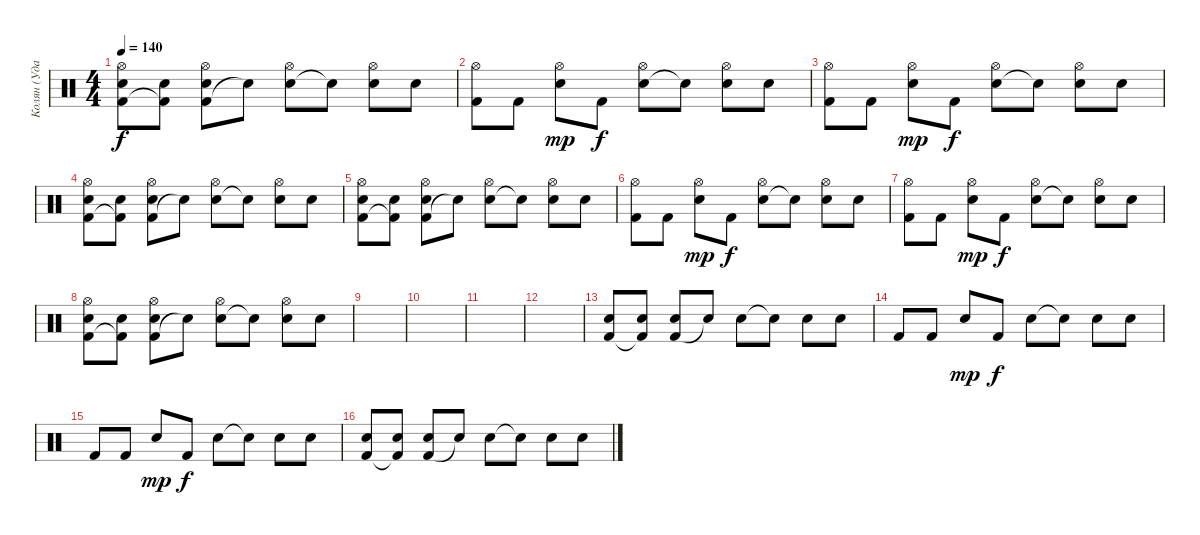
\track ("Колян (Ударные)" "Колян (Уда") {instrument percussion}
\staff
\articulation defaults
\ts (4 4)
\tempo 140
\clef neutral
\ks c
("Kick (hit) 2" "Snare (hit) 2" "Hi-Hat (open)").8{dy f} ("Kick (hit) 2"{t} "Snare (hit) 2").8 ("Kick (hit) 2" "Snare (hit) 2" "Hi-Hat (open)").8 "Snare (hit)"{t}.8 ("Snare (hit) 2" "Hi-Hat (open)").8 "Snare (hit)"{t}.8 ("Snare (hit) 2" "Hi-Hat (open)").8 "Snare (hit) 2".8 |
("Kick (hit) 2" "Hi-Hat (open)").8 "Kick (hit) 2".8 ("Snare (hit) 2" "Hi-Hat (open)").8{dy mp} "Kick (hit) 2".8{dy f} ("Snare (hit) 2" "Hi-Hat (open)").8 "Snare (hit)"{t}.8 ("Snare (hit) 2" "Hi-Hat (open)").8 "Snare (hit) 2".8 |
("Kick (hit) 2" "Hi-Hat (open)").8 "Kick (hit) 2".8 ("Snare (hit) 2" "Hi-Hat (open)").8{dy mp} "Kick (hit) 2".8{dy f} ("Snare (hit) 2" "Hi-Hat (open)").8 "Snare (hit)"{t}.8 ("Snare (hit) 2" "Hi-Hat (open)").8 "Snare (hit) 2".8 |
("Kick (hit) 2" "Snare (hit) 2" "Hi-Hat (open)").8 ("Kick (hit) 2"{t} "Snare (hit) 2").8 ("Kick (hit) 2" "Snare (hit) 2" "Hi-Hat (open)").8 "Snare (hit)"{t}.8 ("Snare (hit) 2" "Hi-Hat (open)").8 "Snare (hit)"{t}.8 ("Snare (hit) 2" "Hi-Hat (open)").8 "Snare (hit) 2".8 |
("Kick (hit) 2" "Snare (hit) 2" "Hi-Hat (open)").8 ("Kick (hit) 2"{t} "Snare (hit) 2").8 ("Kick (hit) 2" "Snare (hit) 2" "Hi-Hat (open)").8 "Snare (hit)"{t}.8 ("Snare (hit) 2" "Hi-Hat (open)").8 "Snare (hit)"{t}.8 ("Snare (hit) 2" "Hi-Hat (open)").8 "Snare (hit) 2".8 |
("Kick (hit) 2" "Hi-Hat (open)").8 "Kick (hit) 2".8 ("Snare (hit) 2" "Hi-Hat (open)").8{dy mp} "Kick (hit) 2".8{dy f} ("Snare (hit) 2" "Hi-Hat (open)").8 "Snare (hit)"{t}.8 ("Snare (hit) 2" "Hi-Hat (open)").8 "Snare (hit) 2".8 |
("Kick (hit) 2" "Hi-Hat (open)").8 "Kick (hit) 2".8 ("Snare (hit) 2" "Hi-Hat (open)").8{dy mp} "Kick (hit) 2".8{dy f} ("Snare (hit) 2" "Hi-Hat (open)").8 "Snare (hit)"{t}.8 ("Snare (hit) 2" "Hi-Hat (open)").8 "Snare (hit) 2".8 |
("Kick (hit) 2" "Snare (hit) 2" "Hi-Hat (open)").8 ("Kick (hit) 2"{t} "Snare (hit) 2").8 ("Kick (hit) 2" "Snare (hit) 2" "Hi-Hat (open)").8 "Snare (hit)"{t}.8 ("Snare (hit) 2" "Hi-Hat (open)").8 "Snare (hit)"{t}.8 ("Snare (hit) 2" "Hi-Hat (open)").8 "Snare (hit) 2".8 |
|
|
|
|
("Kick (hit) 2" "Snare (hit) 2").8 ("Kick (hit) 2"{t} "Snare (hit) 2").8 ("Kick (hit) 2" "Snare (hit) 2").8 "Snare (hit)"{t}.8 "Snare (hit) 2".8 "Snare (hit)"{t}.8 "Snare (hit) 2".8 "Snare (hit) 2".8 |
"Kick (hit) 2".8 "Kick (hit) 2".8 "Snare (hit) 2".8{dy mp} "Kick (hit) 2".8{dy f} "Snare (hit) 2".8 "Snare (hit)"{t}.8 "Snare (hit) 2".8 "Snare (hit) 2".8 |
"Kick (hit) 2".8 "Kick (hit) 2".8 "Snare (hit) 2".8{dy mp} "Kick (hit) 2".8{dy f} "Snare (hit) 2".8 "Snare (hit)"{t}.8 "Snare (hit) 2".8 "Snare (hit) 2".8 |
("Kick (hit) 2" "Snare (hit) 2").8 ("Kick (hit) 2"{t} "Snare (hit) 2").8 ("Kick (hit) 2" "Snare (hit) 2").8 "Snare (hit)"{t}.8 "Snare (hit) 2".8 "Snare (hit)"{t}.8 "Snare (hit) 2".8 "Snare (hit) 2".8
